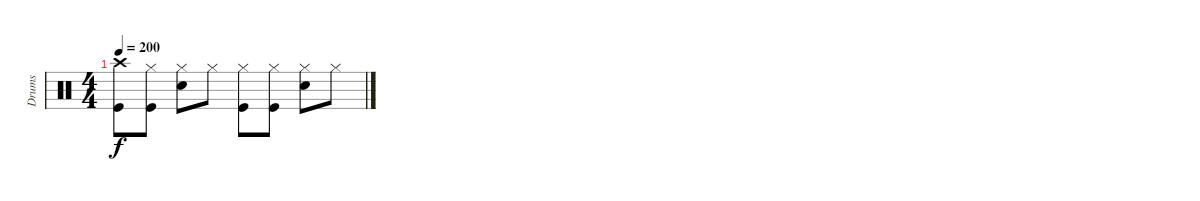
\track ("Drums" "Drums") {instrument percussion}
\staff {score}
\articulation defaults
\ts (4 4)
\tempo 200
\clef neutral
\ks c
("Crash high (hit)" "Kick (hit)").8{dy f} ("Hi-Hat (closed)" "Kick (hit)").8 ("Hi-Hat (closed)" "Snare (hit) 2").8 "Hi-Hat (closed)".8 ("Hi-Hat (closed)" "Kick (hit)").8 ("Hi-Hat (closed)" "Kick (hit)").8 ("Hi-Hat (closed)" "Snare (hit) 2").8 "Hi-Hat (closed)".8
